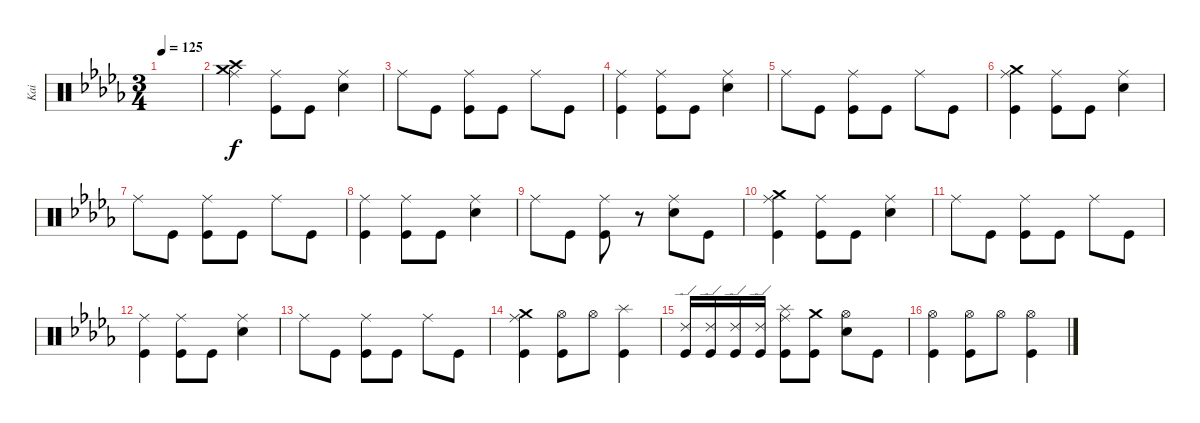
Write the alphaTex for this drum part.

\track ("Kai" "Kai") {instrument percussion}
\staff {score}
\articulation defaults
\ts (3 4)
\tempo 125
\clef neutral
\ks bbminor
|
("Crash high (hit)" "Ride (middle)" "Crash medium (hit)").4 ("Kick (hit)" "Ride (middle)").8 "Kick (hit)".8 ("Snare (hit) 2" "Ride (middle)").4 |
"Ride (middle)".8 "Kick (hit)".8 ("Kick (hit)" "Ride (middle)").8 "Kick (hit)".8 "Ride (middle)".8 "Kick (hit)".8 |
("Kick (hit)" "Ride (middle)").4 ("Kick (hit)" "Ride (middle)").8 "Kick (hit)".8 ("Snare (hit) 2" "Ride (middle)").4 |
"Ride (middle)".8 "Kick (hit)".8 ("Kick (hit)" "Ride (middle)").8 "Kick (hit)".8 "Ride (middle)".8 "Kick (hit)".8 |
("Crash medium (hit)" "Kick (hit)" "Ride (middle)").4 ("Kick (hit)" "Ride (middle)").8 "Kick (hit)".8 ("Snare (hit) 2" "Ride (middle)").4 |
"Ride (middle)".8 "Kick (hit)".8 ("Kick (hit)" "Ride (middle)").8 "Kick (hit)".8 "Ride (middle)".8 "Kick (hit)".8 |
("Kick (hit)" "Ride (middle)").4 ("Kick (hit)" "Ride (middle)").8 "Kick (hit)".8 ("Snare (hit) 2" "Ride (middle)").4 |
"Ride (middle)".8 "Kick (hit)".8 ("Kick (hit)" "Ride (middle)").8 r.8 ("Snare (hit) 2" "Ride (middle)").8 "Kick (hit)".8 |
("Crash medium (hit)" "Kick (hit)" "Ride (middle)").4 ("Kick (hit)" "Ride (middle)").8 "Kick (hit)".8 ("Snare (hit) 2" "Ride (middle)").4 |
"Ride (middle)".8 "Kick (hit)".8 ("Kick (hit)" "Ride (middle)").8 "Kick (hit)".8 "Ride (middle)".8 "Kick (hit)".8 |
("Kick (hit)" "Ride (middle)").4 ("Kick (hit)" "Ride (middle)").8 "Kick (hit)".8 ("Snare (hit) 2" "Ride (middle)").4 |
"Ride (middle)".8 "Kick (hit)".8 ("Kick (hit)" "Ride (middle)").8 "Kick (hit)".8 "Ride (middle)".8 "Kick (hit)".8 |
("Crash medium (hit)" "Kick (hit)" "Ride (middle)").4 ("Hi-Hat (open)" "Kick (hit)").8 "Hi-Hat (open)".8 ("Splash (hit)" "Kick (hit)").4 |
("Ride (edge) 2" "Kick (hit)").16 ("Ride (edge) 2" "Kick (hit)").16 ("Ride (edge) 2" "Kick (hit)").16 ("Ride (edge) 2" "Kick (hit)").16 ("Splash (hit)" "Ride (middle)" "Kick (hit)").8 ("Crash medium (hit)" "Kick (hit)").8 ("Snare (hit) 2" "Hi-Hat (open)").8 "Kick (hit)".8 |
("Kick (hit)" "Hi-Hat (open)").4 ("Hi-Hat (open)" "Kick (hit)").8 "Hi-Hat (open)".8 ("Hi-Hat (open)" "Kick (hit)").4
